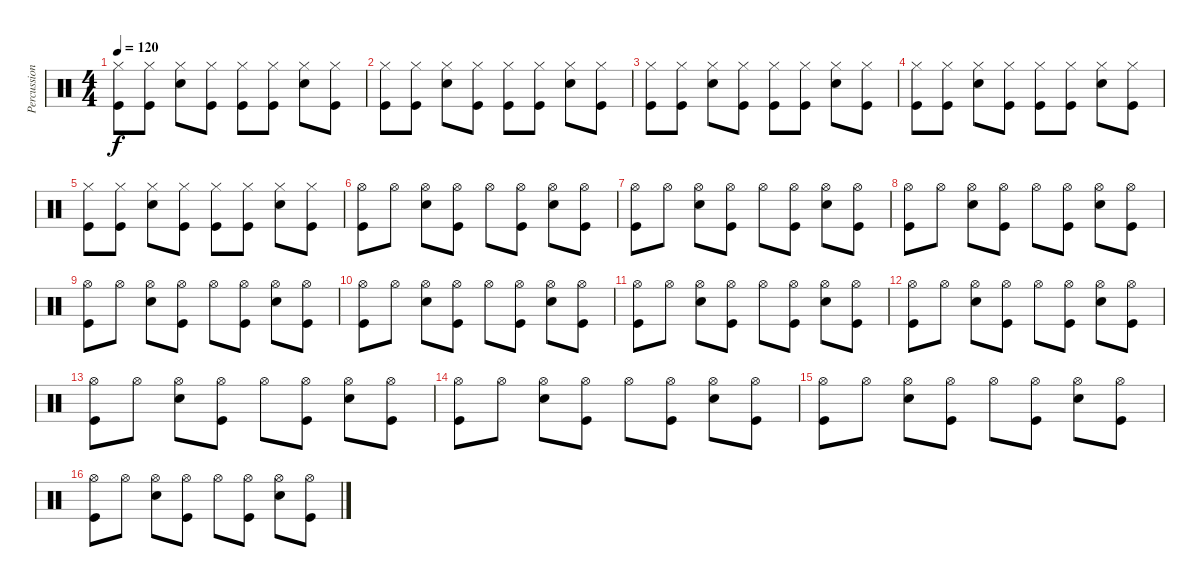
\track ("Percussion" "Percussion") {instrument percussion}
\staff {score}
\articulation defaults
\ts (4 4)
\tempo 120
\clef neutral
\ks c
("Hi-Hat (closed)" "Kick (hit)").8{dy f} ("Hi-Hat (closed)" "Kick (hit)").8 ("Hi-Hat (closed)" "Snare (hit) 2").8 ("Hi-Hat (closed)" "Kick (hit)").8 ("Hi-Hat (closed)" "Kick (hit)").8 ("Hi-Hat (closed)" "Kick (hit)").8 ("Hi-Hat (closed)" "Snare (hit) 2").8 ("Hi-Hat (closed)" "Kick (hit)").8 |
("Hi-Hat (closed)" "Kick (hit)").8 ("Hi-Hat (closed)" "Kick (hit)").8 ("Hi-Hat (closed)" "Snare (hit) 2").8 ("Hi-Hat (closed)" "Kick (hit)").8 ("Hi-Hat (closed)" "Kick (hit)").8 ("Hi-Hat (closed)" "Kick (hit)").8 ("Hi-Hat (closed)" "Snare (hit) 2").8 ("Hi-Hat (closed)" "Kick (hit)").8 |
("Hi-Hat (closed)" "Kick (hit)").8 ("Hi-Hat (closed)" "Kick (hit)").8 ("Hi-Hat (closed)" "Snare (hit) 2").8 ("Hi-Hat (closed)" "Kick (hit)").8 ("Hi-Hat (closed)" "Kick (hit)").8 ("Hi-Hat (closed)" "Kick (hit)").8 ("Hi-Hat (closed)" "Snare (hit) 2").8 ("Hi-Hat (closed)" "Kick (hit)").8 |
("Hi-Hat (closed)" "Kick (hit)").8 ("Hi-Hat (closed)" "Kick (hit)").8 ("Hi-Hat (closed)" "Snare (hit) 2").8 ("Hi-Hat (closed)" "Kick (hit)").8 ("Hi-Hat (closed)" "Kick (hit)").8 ("Hi-Hat (closed)" "Kick (hit)").8 ("Hi-Hat (closed)" "Snare (hit) 2").8 ("Hi-Hat (closed)" "Kick (hit)").8 |
("Hi-Hat (closed)" "Kick (hit)").8 ("Hi-Hat (closed)" "Kick (hit)").8 ("Hi-Hat (closed)" "Snare (hit) 2").8 ("Hi-Hat (closed)" "Kick (hit)").8 ("Hi-Hat (closed)" "Kick (hit)").8 ("Hi-Hat (closed)" "Kick (hit)").8 ("Hi-Hat (closed)" "Snare (hit) 2").8 ("Hi-Hat (closed)" "Kick (hit)").8 |
("Hi-Hat (open)" "Kick (hit)").8 "Hi-Hat (open)".8 ("Hi-Hat (open)" "Snare (hit) 2").8 ("Hi-Hat (open)" "Kick (hit)").8 "Hi-Hat (open)".8 ("Hi-Hat (open)" "Kick (hit)").8 ("Hi-Hat (open)" "Snare (hit) 2").8 ("Hi-Hat (open)" "Kick (hit)").8 |
("Hi-Hat (open)" "Kick (hit)").8 "Hi-Hat (open)".8 ("Hi-Hat (open)" "Snare (hit) 2").8 ("Hi-Hat (open)" "Kick (hit)").8 "Hi-Hat (open)".8 ("Hi-Hat (open)" "Kick (hit)").8 ("Hi-Hat (open)" "Snare (hit) 2").8 ("Hi-Hat (open)" "Kick (hit)").8 |
("Hi-Hat (open)" "Kick (hit)").8 "Hi-Hat (open)".8 ("Hi-Hat (open)" "Snare (hit) 2").8 ("Hi-Hat (open)" "Kick (hit)").8 "Hi-Hat (open)".8 ("Hi-Hat (open)" "Kick (hit)").8 ("Hi-Hat (open)" "Snare (hit) 2").8 ("Hi-Hat (open)" "Kick (hit)").8 |
("Hi-Hat (open)" "Kick (hit)").8 "Hi-Hat (open)".8 ("Hi-Hat (open)" "Snare (hit) 2").8 ("Hi-Hat (open)" "Kick (hit)").8 "Hi-Hat (open)".8 ("Hi-Hat (open)" "Kick (hit)").8 ("Hi-Hat (open)" "Snare (hit) 2").8 ("Hi-Hat (open)" "Kick (hit)").8 |
("Hi-Hat (open)" "Kick (hit)").8 "Hi-Hat (open)".8 ("Hi-Hat (open)" "Snare (hit) 2").8 ("Hi-Hat (open)" "Kick (hit)").8 "Hi-Hat (open)".8 ("Hi-Hat (open)" "Kick (hit)").8 ("Hi-Hat (open)" "Snare (hit) 2").8 ("Hi-Hat (open)" "Kick (hit)").8 |
("Hi-Hat (open)" "Kick (hit)").8 "Hi-Hat (open)".8 ("Hi-Hat (open)" "Snare (hit) 2").8 ("Hi-Hat (open)" "Kick (hit)").8 "Hi-Hat (open)".8 ("Hi-Hat (open)" "Kick (hit)").8 ("Hi-Hat (open)" "Snare (hit) 2").8 ("Hi-Hat (open)" "Kick (hit)").8 |
("Hi-Hat (open)" "Kick (hit)").8 "Hi-Hat (open)".8 ("Hi-Hat (open)" "Snare (hit) 2").8 ("Hi-Hat (open)" "Kick (hit)").8 "Hi-Hat (open)".8 ("Hi-Hat (open)" "Kick (hit)").8 ("Hi-Hat (open)" "Snare (hit) 2").8 ("Hi-Hat (open)" "Kick (hit)").8 |
("Hi-Hat (open)" "Kick (hit)").8 "Hi-Hat (open)".8 ("Hi-Hat (open)" "Snare (hit) 2").8 ("Hi-Hat (open)" "Kick (hit)").8 "Hi-Hat (open)".8 ("Hi-Hat (open)" "Kick (hit)").8 ("Hi-Hat (open)" "Snare (hit) 2").8 ("Hi-Hat (open)" "Kick (hit)").8 |
("Hi-Hat (open)" "Kick (hit)").8 "Hi-Hat (open)".8 ("Hi-Hat (open)" "Snare (hit) 2").8 ("Hi-Hat (open)" "Kick (hit)").8 "Hi-Hat (open)".8 ("Hi-Hat (open)" "Kick (hit)").8 ("Hi-Hat (open)" "Snare (hit) 2").8 ("Hi-Hat (open)" "Kick (hit)").8 |
("Hi-Hat (open)" "Kick (hit)").8 "Hi-Hat (open)".8 ("Hi-Hat (open)" "Snare (hit) 2").8 ("Hi-Hat (open)" "Kick (hit)").8 "Hi-Hat (open)".8 ("Hi-Hat (open)" "Kick (hit)").8 ("Hi-Hat (open)" "Snare (hit) 2").8 ("Hi-Hat (open)" "Kick (hit)").8 |
("Hi-Hat (open)" "Kick (hit)").8 "Hi-Hat (open)".8 ("Hi-Hat (open)" "Snare (hit) 2").8 ("Hi-Hat (open)" "Kick (hit)").8 "Hi-Hat (open)".8 ("Hi-Hat (open)" "Kick (hit)").8 ("Hi-Hat (open)" "Snare (hit) 2").8 ("Hi-Hat (open)" "Kick (hit)").8
